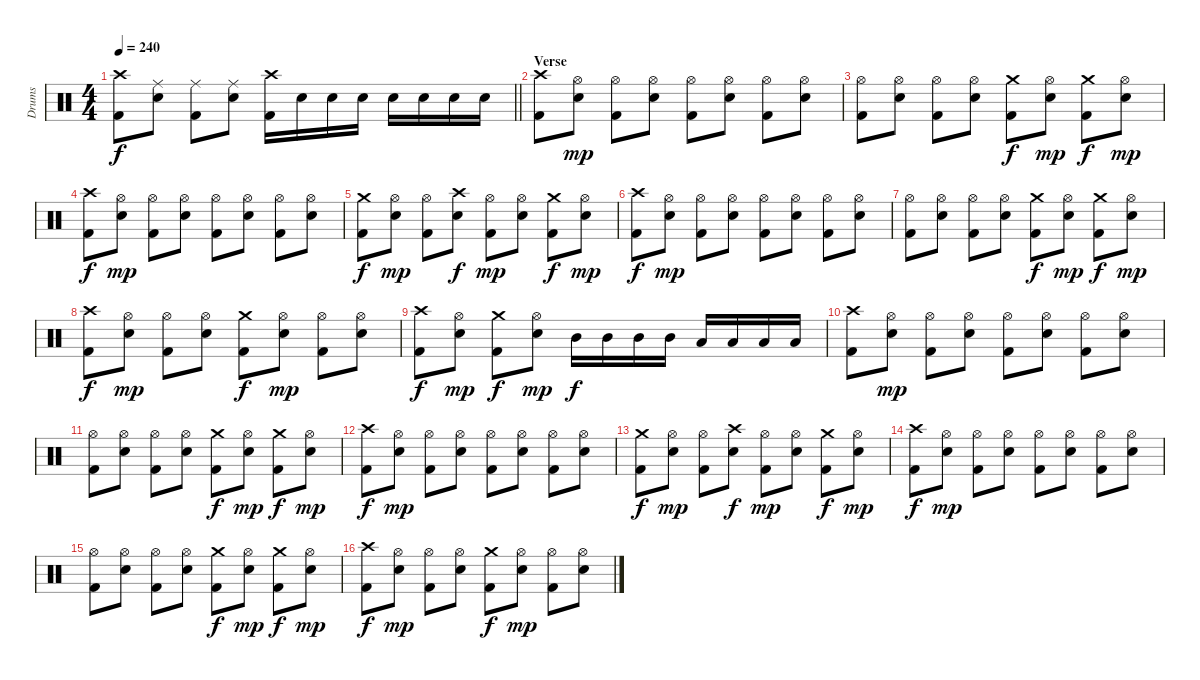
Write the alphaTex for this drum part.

\track ("Drums" "Drums") {instrument percussion}
\staff {score}
\articulation defaults
\ts (4 4)
\tempo 240
\clef neutral
\barLineRight lightlight
\ks c
("Crash high (hit)" "Kick (hit) 2").8{dy f} ("Ride (middle)" "Snare (hit) 2").8 ("Ride (middle)" "Kick (hit) 2").8 ("Ride (middle)" "Snare (hit) 2").8 ("Crash high (hit)" "Kick (hit) 2").16 "Snare (hit) 2".16 "Snare (hit) 2".16 "Snare (hit) 2".16 "Snare (hit) 2".16 "Snare (hit) 2".16 "Snare (hit) 2".16 "Snare (hit) 2".16 |
\section ("" "Verse")
("Crash high (hit)" "Kick (hit) 2").8 ("Hi-Hat (open)" "Snare (hit) 2").8{dy mp} ("Hi-Hat (open)" "Kick (hit) 2").8 ("Hi-Hat (open)" "Snare (hit) 2").8 ("Hi-Hat (open)" "Kick (hit) 2").8 ("Hi-Hat (open)" "Snare (hit) 2").8 ("Hi-Hat (open)" "Kick (hit) 2").8 ("Hi-Hat (open)" "Snare (hit) 2").8 |
("Hi-Hat (open)" "Kick (hit) 2").8 ("Hi-Hat (open)" "Snare (hit) 2").8 ("Hi-Hat (open)" "Kick (hit) 2").8 ("Hi-Hat (open)" "Snare (hit) 2").8 ("Crash medium (hit)" "Kick (hit) 2").8{dy f} ("Hi-Hat (open)" "Snare (hit) 2").8{dy mp} ("Crash medium (hit)" "Kick (hit) 2").8{dy f} ("Hi-Hat (open)" "Snare (hit) 2").8{dy mp} |
("Crash high (hit)" "Kick (hit) 2").8{dy f} ("Hi-Hat (open)" "Snare (hit) 2").8{dy mp} ("Hi-Hat (open)" "Kick (hit) 2").8 ("Hi-Hat (open)" "Snare (hit) 2").8 ("Hi-Hat (open)" "Kick (hit) 2").8 ("Hi-Hat (open)" "Snare (hit) 2").8 ("Hi-Hat (open)" "Kick (hit) 2").8 ("Hi-Hat (open)" "Snare (hit) 2").8 |
("Crash medium (hit)" "Kick (hit) 2").8{dy f} ("Hi-Hat (open)" "Snare (hit) 2").8{dy mp} ("Hi-Hat (open)" "Kick (hit) 2").8 ("Crash high (hit)" "Snare (hit) 2").8{dy f} ("Hi-Hat (open)" "Kick (hit) 2").8{dy mp} ("Hi-Hat (open)" "Snare (hit) 2").8 ("Crash medium (hit)" "Kick (hit) 2").8{dy f} ("Hi-Hat (open)" "Snare (hit) 2").8{dy mp} |
("Crash high (hit)" "Kick (hit) 2").8{dy f} ("Hi-Hat (open)" "Snare (hit) 2").8{dy mp} ("Hi-Hat (open)" "Kick (hit) 2").8 ("Hi-Hat (open)" "Snare (hit) 2").8 ("Hi-Hat (open)" "Kick (hit) 2").8 ("Hi-Hat (open)" "Snare (hit) 2").8 ("Hi-Hat (open)" "Kick (hit) 2").8 ("Hi-Hat (open)" "Snare (hit) 2").8 |
("Hi-Hat (open)" "Kick (hit) 2").8 ("Hi-Hat (open)" "Snare (hit) 2").8 ("Hi-Hat (open)" "Kick (hit) 2").8 ("Hi-Hat (open)" "Snare (hit) 2").8 ("Crash medium (hit)" "Kick (hit) 2").8{dy f} ("Hi-Hat (open)" "Snare (hit) 2").8{dy mp} ("Crash medium (hit)" "Kick (hit) 2").8{dy f} ("Hi-Hat (open)" "Snare (hit) 2").8{dy mp} |
("Crash high (hit)" "Kick (hit) 2").8{dy f} ("Hi-Hat (open)" "Snare (hit) 2").8{dy mp} ("Hi-Hat (open)" "Kick (hit) 2").8 ("Hi-Hat (open)" "Snare (hit) 2").8 ("Crash medium (hit)" "Kick (hit) 2").8{dy f} ("Hi-Hat (open)" "Snare (hit) 2").8{dy mp} ("Hi-Hat (open)" "Kick (hit) 2").8 ("Hi-Hat (open)" "Snare (hit) 2").8 |
("Crash high (hit)" "Kick (hit) 2").8{dy f} ("Hi-Hat (open)" "Snare (hit) 2").8{dy mp} ("Crash medium (hit)" "Kick (hit) 2").8{dy f} ("Hi-Hat (open)" "Snare (hit) 2").8{dy mp} "Mid Tom (hit)".16{dy f} "Mid Tom (hit)".16 "Mid Tom (hit)".16 "Mid Tom (hit)".16 "Low Tom (hit)".16 "Low Tom (hit)".16 "Low Tom (hit)".16 "Low Tom (hit)".16 |
("Crash high (hit)" "Kick (hit) 2").8 ("Hi-Hat (open)" "Snare (hit) 2").8{dy mp} ("Hi-Hat (open)" "Kick (hit) 2").8 ("Hi-Hat (open)" "Snare (hit) 2").8 ("Hi-Hat (open)" "Kick (hit) 2").8 ("Hi-Hat (open)" "Snare (hit) 2").8 ("Hi-Hat (open)" "Kick (hit) 2").8 ("Hi-Hat (open)" "Snare (hit) 2").8 |
("Hi-Hat (open)" "Kick (hit) 2").8 ("Hi-Hat (open)" "Snare (hit) 2").8 ("Hi-Hat (open)" "Kick (hit) 2").8 ("Hi-Hat (open)" "Snare (hit) 2").8 ("Crash medium (hit)" "Kick (hit) 2").8{dy f} ("Hi-Hat (open)" "Snare (hit) 2").8{dy mp} ("Crash medium (hit)" "Kick (hit) 2").8{dy f} ("Hi-Hat (open)" "Snare (hit) 2").8{dy mp} |
("Crash high (hit)" "Kick (hit) 2").8{dy f} ("Hi-Hat (open)" "Snare (hit) 2").8{dy mp} ("Hi-Hat (open)" "Kick (hit) 2").8 ("Hi-Hat (open)" "Snare (hit) 2").8 ("Hi-Hat (open)" "Kick (hit) 2").8 ("Hi-Hat (open)" "Snare (hit) 2").8 ("Hi-Hat (open)" "Kick (hit) 2").8 ("Hi-Hat (open)" "Snare (hit) 2").8 |
("Crash medium (hit)" "Kick (hit) 2").8{dy f} ("Hi-Hat (open)" "Snare (hit) 2").8{dy mp} ("Hi-Hat (open)" "Kick (hit) 2").8 ("Crash high (hit)" "Snare (hit) 2").8{dy f} ("Hi-Hat (open)" "Kick (hit) 2").8{dy mp} ("Hi-Hat (open)" "Snare (hit) 2").8 ("Crash medium (hit)" "Kick (hit) 2").8{dy f} ("Hi-Hat (open)" "Snare (hit) 2").8{dy mp} |
("Crash high (hit)" "Kick (hit) 2").8{dy f} ("Hi-Hat (open)" "Snare (hit) 2").8{dy mp} ("Hi-Hat (open)" "Kick (hit) 2").8 ("Hi-Hat (open)" "Snare (hit) 2").8 ("Hi-Hat (open)" "Kick (hit) 2").8 ("Hi-Hat (open)" "Snare (hit) 2").8 ("Hi-Hat (open)" "Kick (hit) 2").8 ("Hi-Hat (open)" "Snare (hit) 2").8 |
("Hi-Hat (open)" "Kick (hit) 2").8 ("Hi-Hat (open)" "Snare (hit) 2").8 ("Hi-Hat (open)" "Kick (hit) 2").8 ("Hi-Hat (open)" "Snare (hit) 2").8 ("Crash medium (hit)" "Kick (hit) 2").8{dy f} ("Hi-Hat (open)" "Snare (hit) 2").8{dy mp} ("Crash medium (hit)" "Kick (hit) 2").8{dy f} ("Hi-Hat (open)" "Snare (hit) 2").8{dy mp} |
("Crash high (hit)" "Kick (hit) 2").8{dy f} ("Hi-Hat (open)" "Snare (hit) 2").8{dy mp} ("Hi-Hat (open)" "Kick (hit) 2").8 ("Hi-Hat (open)" "Snare (hit) 2").8 ("Crash medium (hit)" "Kick (hit) 2").8{dy f} ("Hi-Hat (open)" "Snare (hit) 2").8{dy mp} ("Hi-Hat (open)" "Kick (hit) 2").8 ("Hi-Hat (open)" "Snare (hit) 2").8
